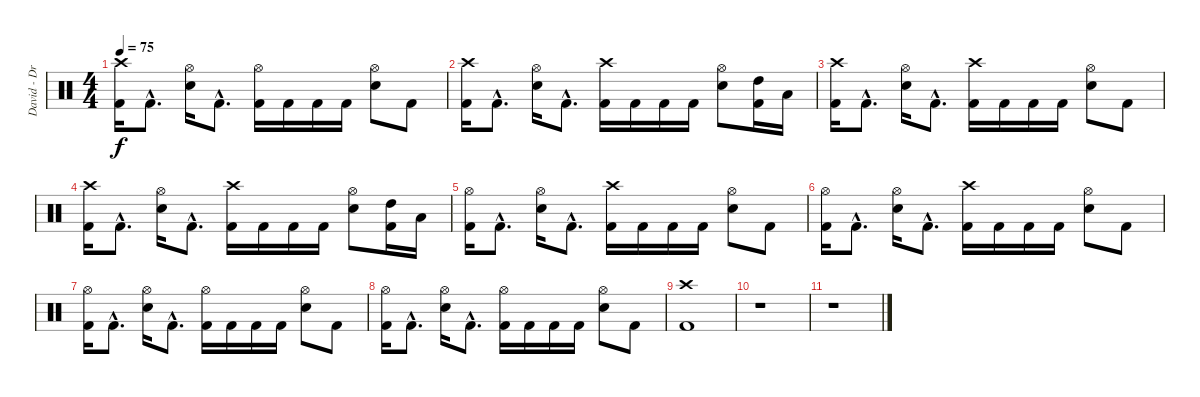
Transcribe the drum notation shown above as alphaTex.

\track ("David - Drums" "David - Dr") {instrument percussion}
\staff {score}
\articulation defaults
\ts (4 4)
\tempo 75
\clef neutral
\ks c
("Crash high (hit)" "Kick (hit) 2").16{dy f} "Kick (hit) 2"{hac}.8{d} ("Hi-Hat (open)" "Electric Snare (hit)").16 "Kick (hit) 2"{hac}.8{d} ("Hi-Hat (open)" "Kick (hit) 2").16 "Kick (hit) 2".16 "Kick (hit) 2".16 "Kick (hit) 2".16 ("Hi-Hat (open)" "Electric Snare (hit)").8 "Kick (hit) 2".8 |
("Crash high (hit)" "Kick (hit) 2").16 "Kick (hit) 2"{hac}.8{d} ("Hi-Hat (open)" "Electric Snare (hit)").16 "Kick (hit) 2"{hac}.8{d} ("Crash high (hit)" "Kick (hit) 2").16 "Kick (hit) 2".16 "Kick (hit) 2".16 "Kick (hit) 2".16 ("Hi-Hat (open)" "Electric Snare (hit)").8 ("High Tom (hit)" "Kick (hit) 2").16 "Low Tom (hit)".16 |
("Crash high (hit)" "Kick (hit) 2").16 "Kick (hit) 2"{hac}.8{d} ("Hi-Hat (open)" "Electric Snare (hit)").16 "Kick (hit) 2"{hac}.8{d} ("Crash high (hit)" "Kick (hit) 2").16 "Kick (hit) 2".16 "Kick (hit) 2".16 "Kick (hit) 2".16 ("Hi-Hat (open)" "Electric Snare (hit)").8 "Kick (hit) 2".8 |
("Crash high (hit)" "Kick (hit) 2").16 "Kick (hit) 2"{hac}.8{d} ("Hi-Hat (open)" "Electric Snare (hit)").16 "Kick (hit) 2"{hac}.8{d} ("Crash high (hit)" "Kick (hit) 2").16 "Kick (hit) 2".16 "Kick (hit) 2".16 "Kick (hit) 2".16 ("Hi-Hat (open)" "Electric Snare (hit)").8 ("High Tom (hit)" "Kick (hit) 2").16 "Low Tom (hit)".16 |
("Hi-Hat (open)" "Kick (hit) 2").16 "Kick (hit) 2"{hac}.8{d} ("Hi-Hat (open)" "Electric Snare (hit)").16 "Kick (hit) 2"{hac}.8{d} ("Crash high (hit)" "Kick (hit) 2").16 "Kick (hit) 2".16 "Kick (hit) 2".16 "Kick (hit) 2".16 ("Hi-Hat (open)" "Electric Snare (hit)").8 "Kick (hit) 2".8 |
("Hi-Hat (open)" "Kick (hit) 2").16 "Kick (hit) 2"{hac}.8{d} ("Hi-Hat (open)" "Electric Snare (hit)").16 "Kick (hit) 2"{hac}.8{d} ("Crash high (hit)" "Kick (hit) 2").16 "Kick (hit) 2".16 "Kick (hit) 2".16 "Kick (hit) 2".16 ("Hi-Hat (open)" "Electric Snare (hit)").8 "Kick (hit) 2".8 |
("Hi-Hat (open)" "Kick (hit) 2").16 "Kick (hit) 2"{hac}.8{d} ("Hi-Hat (open)" "Electric Snare (hit)").16 "Kick (hit) 2"{hac}.8{d} ("Hi-Hat (open)" "Kick (hit) 2").16 "Kick (hit) 2".16 "Kick (hit) 2".16 "Kick (hit) 2".16 ("Hi-Hat (open)" "Electric Snare (hit)").8 "Kick (hit) 2".8 |
("Hi-Hat (open)" "Kick (hit) 2").16 "Kick (hit) 2"{hac}.8{d} ("Hi-Hat (open)" "Electric Snare (hit)").16 "Kick (hit) 2"{hac}.8{d} ("Hi-Hat (open)" "Kick (hit) 2").16 "Kick (hit) 2".16 "Kick (hit) 2".16 "Kick (hit) 2".16 ("Hi-Hat (open)" "Electric Snare (hit)").8 "Kick (hit) 2".8 |
("Crash high (hit)" "Kick (hit) 2").1 |
r.1 |
r.1
